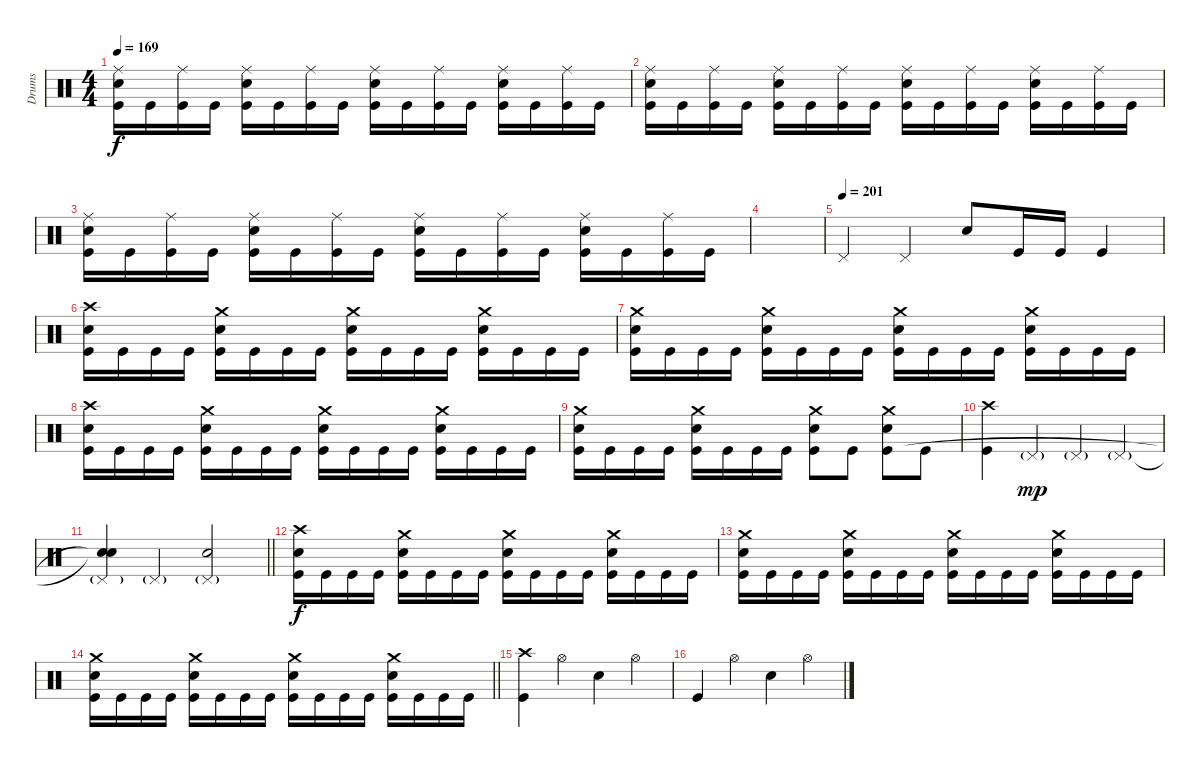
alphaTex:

\track ("Drums" "Drums") {instrument percussion}
\staff
\articulation defaults
\ts (4 4)
\tempo 169
\clef neutral
\ks c
("Ride (middle)" "Electric Snare (hit)" "Kick (hit)").16{dy f} "Kick (hit)".16 ("Ride (middle)" "Kick (hit)").16 "Kick (hit)".16 ("Ride (middle)" "Electric Snare (hit)" "Kick (hit)").16 "Kick (hit)".16 ("Ride (middle)" "Kick (hit)").16 "Kick (hit)".16 ("Ride (middle)" "Electric Snare (hit)" "Kick (hit)").16 "Kick (hit)".16 ("Ride (middle)" "Kick (hit)").16 "Kick (hit)".16 ("Ride (middle)" "Electric Snare (hit)" "Kick (hit)").16 "Kick (hit)".16 ("Ride (middle)" "Kick (hit)").16 "Kick (hit)".16 |
("Ride (middle)" "Electric Snare (hit)" "Kick (hit)").16 "Kick (hit)".16 ("Ride (middle)" "Kick (hit)").16 "Kick (hit)".16 ("Ride (middle)" "Electric Snare (hit)" "Kick (hit)").16 "Kick (hit)".16 ("Ride (middle)" "Kick (hit)").16 "Kick (hit)".16 ("Ride (middle)" "Electric Snare (hit)" "Kick (hit)").16 "Kick (hit)".16 ("Ride (middle)" "Kick (hit)").16 "Kick (hit)".16 ("Ride (middle)" "Electric Snare (hit)" "Kick (hit)").16 "Kick (hit)".16 ("Ride (middle)" "Kick (hit)").16 "Kick (hit)".16 |
("Ride (middle)" "Electric Snare (hit)" "Kick (hit)").16 "Kick (hit)".16 ("Ride (middle)" "Kick (hit)").16 "Kick (hit)".16 ("Ride (middle)" "Electric Snare (hit)" "Kick (hit)").16 "Kick (hit)".16 ("Ride (middle)" "Kick (hit)").16 "Kick (hit)".16 ("Ride (middle)" "Electric Snare (hit)" "Kick (hit)").16 "Kick (hit)".16 ("Ride (middle)" "Kick (hit)").16 "Kick (hit)".16 ("Ride (middle)" "Electric Snare (hit)" "Kick (hit)").16 "Kick (hit)".16 ("Ride (middle)" "Kick (hit)").16 "Kick (hit)".16 |
|
\tempo (201)
"Pedal Hi-Hat (hit)".4{volume 15} "Pedal Hi-Hat (hit)".4 "Electric Snare (hit)".8 "Kick (hit)".16 "Kick (hit)".16 "Kick (hit)".4 |
("Crash high (hit)" "Electric Snare (hit)" "Kick (hit)").16 "Kick (hit)".16 "Kick (hit)".16 "Kick (hit)".16 ("Crash medium (hit)" "Electric Snare (hit)" "Kick (hit)").16 "Kick (hit)".16 "Kick (hit)".16 "Kick (hit)".16 ("Crash medium (hit)" "Electric Snare (hit)" "Kick (hit)").16 "Kick (hit)".16 "Kick (hit)".16 "Kick (hit)".16 ("Crash medium (hit)" "Electric Snare (hit)" "Kick (hit)").16 "Kick (hit)".16 "Kick (hit)".16 "Kick (hit)".16 |
("Crash medium (hit)" "Electric Snare (hit)" "Kick (hit)").16 "Kick (hit)".16 "Kick (hit)".16 "Kick (hit)".16 ("Crash medium (hit)" "Electric Snare (hit)" "Kick (hit)").16 "Kick (hit)".16 "Kick (hit)".16 "Kick (hit)".16 ("Crash medium (hit)" "Electric Snare (hit)" "Kick (hit)").16 "Kick (hit)".16 "Kick (hit)".16 "Kick (hit)".16 ("Crash medium (hit)" "Electric Snare (hit)" "Kick (hit)").16 "Kick (hit)".16 "Kick (hit)".16 "Kick (hit)".16 |
("Crash high (hit)" "Electric Snare (hit)" "Kick (hit)").16 "Kick (hit)".16 "Kick (hit)".16 "Kick (hit)".16 ("Crash medium (hit)" "Electric Snare (hit)" "Kick (hit)").16 "Kick (hit)".16 "Kick (hit)".16 "Kick (hit)".16 ("Crash medium (hit)" "Electric Snare (hit)" "Kick (hit)").16 "Kick (hit)".16 "Kick (hit)".16 "Kick (hit)".16 ("Crash medium (hit)" "Electric Snare (hit)" "Kick (hit)").16 "Kick (hit)".16 "Kick (hit)".16 "Kick (hit)".16 |
("Crash medium (hit)" "Electric Snare (hit)" "Kick (hit)").16 "Kick (hit)".16 "Kick (hit)".16 "Kick (hit)".16 ("Crash medium (hit)" "Electric Snare (hit)" "Kick (hit)").16 "Kick (hit)".16 "Kick (hit)".16 "Kick (hit)".16 ("Crash medium (hit)" "Electric Snare (hit)" "Kick (hit)").8 "Kick (hit)".8 ("Crash medium (hit)" "Electric Snare (hit)" "Kick (hit)").8 "Kick (hit)".8 |
("Crash high (hit)" "Kick (hit)").4 "Pedal Hi-Hat (hit)"{g}.4{dy mp} "Pedal Hi-Hat (hit)"{g}.4 "Pedal Hi-Hat (hit)"{g}.4 |
\barLineRight lightlight
("Snare (hit)"{t} "Pedal Hi-Hat (hit)"{g} "Snare (hit)"{t}).4 "Pedal Hi-Hat (hit)"{g}.4 ("Pedal Hi-Hat (hit)"{g} "Electric Snare (hit)").2 |
("Crash high (hit)" "Electric Snare (hit)" "Kick (hit)").16{dy f} "Kick (hit)".16 "Kick (hit)".16 "Kick (hit)".16 ("Crash medium (hit)" "Electric Snare (hit)" "Kick (hit)").16 "Kick (hit)".16 "Kick (hit)".16 "Kick (hit)".16 ("Crash medium (hit)" "Electric Snare (hit)" "Kick (hit)").16 "Kick (hit)".16 "Kick (hit)".16 "Kick (hit)".16 ("Crash medium (hit)" "Electric Snare (hit)" "Kick (hit)").16 "Kick (hit)".16 "Kick (hit)".16 "Kick (hit)".16 |
("Crash medium (hit)" "Electric Snare (hit)" "Kick (hit)").16 "Kick (hit)".16 "Kick (hit)".16 "Kick (hit)".16 ("Crash medium (hit)" "Electric Snare (hit)" "Kick (hit)").16 "Kick (hit)".16 "Kick (hit)".16 "Kick (hit)".16 ("Crash medium (hit)" "Electric Snare (hit)" "Kick (hit)").16 "Kick (hit)".16 "Kick (hit)".16 "Kick (hit)".16 ("Crash medium (hit)" "Electric Snare (hit)" "Kick (hit)").16 "Kick (hit)".16 "Kick (hit)".16 "Kick (hit)".16 |
\barLineRight lightlight
("Crash medium (hit)" "Electric Snare (hit)" "Kick (hit)").16 "Kick (hit)".16 "Kick (hit)".16 "Kick (hit)".16 ("Crash medium (hit)" "Electric Snare (hit)" "Kick (hit)").16 "Kick (hit)".16 "Kick (hit)".16 "Kick (hit)".16 ("Crash medium (hit)" "Electric Snare (hit)" "Kick (hit)").16 "Kick (hit)".16 "Kick (hit)".16 "Kick (hit)".16 ("Crash medium (hit)" "Electric Snare (hit)" "Kick (hit)").16 "Kick (hit)".16 "Kick (hit)".16 "Kick (hit)".16 |
("Crash high (hit)" "Kick (hit)").4 "Hi-Hat (open)".4 "Electric Snare (hit)".4 "Hi-Hat (open)".4 |
"Kick (hit)".4 "Hi-Hat (open)".4 "Electric Snare (hit)".4 "Hi-Hat (open)".4
